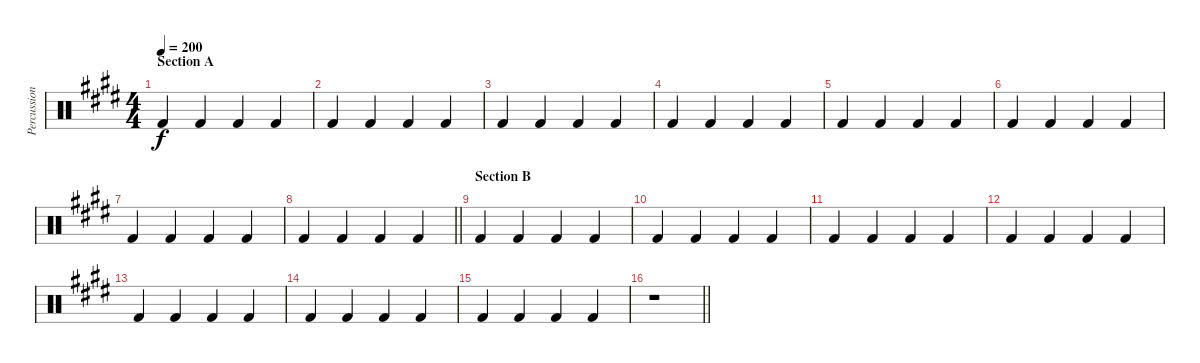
\track ("Percussion - bass drum" "Percussion") {instrument percussion}
\staff {score}
\articulation defaults
\ts (4 4)
\section ("" "Section A")
\tempo 200
\clef neutral
\ks e "Kick (hit) 2".4{dy f} "Kick (hit) 2".4 "Kick (hit) 2".4 "Kick (hit) 2".4
|
"Kick (hit) 2".4 "Kick (hit) 2".4 "Kick (hit) 2".4 "Kick (hit) 2".4 |
"Kick (hit) 2".4 "Kick (hit) 2".4 "Kick (hit) 2".4 "Kick (hit) 2".4 |
"Kick (hit) 2".4 "Kick (hit) 2".4 "Kick (hit) 2".4 "Kick (hit) 2".4 |
"Kick (hit) 2".4 "Kick (hit) 2".4 "Kick (hit) 2".4 "Kick (hit) 2".4 |
"Kick (hit) 2".4 "Kick (hit) 2".4 "Kick (hit) 2".4 "Kick (hit) 2".4 |
"Kick (hit) 2".4 "Kick (hit) 2".4 "Kick (hit) 2".4 "Kick (hit) 2".4 |
\barLineRight lightlight "Kick (hit) 2".4 "Kick (hit) 2".4 "Kick (hit) 2".4 "Kick (hit) 2".4
|
\section ("" "Section B")
"Kick (hit) 2".4 "Kick (hit) 2".4 "Kick (hit) 2".4 "Kick (hit) 2".4 |
"Kick (hit) 2".4 "Kick (hit) 2".4 "Kick (hit) 2".4 "Kick (hit) 2".4 |
"Kick (hit) 2".4 "Kick (hit) 2".4 "Kick (hit) 2".4 "Kick (hit) 2".4 |
"Kick (hit) 2".4 "Kick (hit) 2".4 "Kick (hit) 2".4 "Kick (hit) 2".4 |
"Kick (hit) 2".4 "Kick (hit) 2".4 "Kick (hit) 2".4 "Kick (hit) 2".4 |
"Kick (hit) 2".4 "Kick (hit) 2".4 "Kick (hit) 2".4 "Kick (hit) 2".4 |
"Kick (hit) 2".4 "Kick (hit) 2".4 "Kick (hit) 2".4 "Kick (hit) 2".4 |
\barLineRight lightlight
r.1
